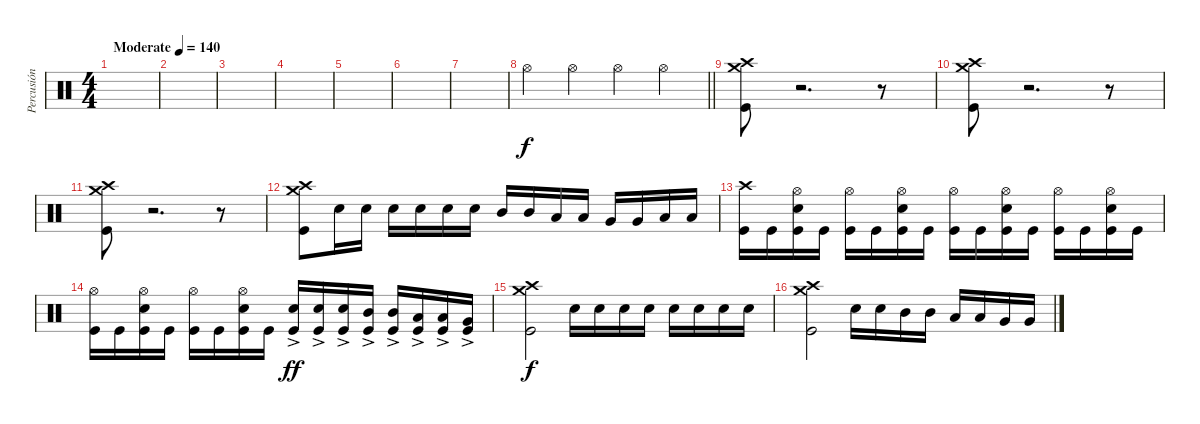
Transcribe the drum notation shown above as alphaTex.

\track ("Percusión" "Percusión") {instrument percussion}
\staff {score}
\articulation defaults
\ts (4 4)
\tempo (140 "Moderate")
\clef neutral
\ks c
|
|
|
|
|
|
|
\barLineRight lightlight "Hi-Hat (open)".4 "Hi-Hat (open)".4 "Hi-Hat (open)".4 "Hi-Hat (open)".4
|
("Kick (hit)" "Crash high (hit)" "Crash medium (hit)").8 r.2{d} r.8 |
("Kick (hit)" "Crash high (hit)" "Crash medium (hit)").8 r.2{d} r.8 |
("Kick (hit)" "Crash high (hit)" "Crash medium (hit)").8 r.2{d} r.8 |
("Kick (hit)" "Crash high (hit)" "Crash medium (hit)").8 "Snare (hit) 2".16 "Snare (hit) 2".16 "Snare (hit) 2".16 "Snare (hit) 2".16 "Snare (hit) 2".16 "Snare (hit) 2".16 "Mid Tom (hit)".16 "Mid Tom (hit)".16 "Low Tom (hit)".16 "Low Tom (hit)".16 "Very Low Tom (hit)".16 "Very Low Tom (hit)".16 "Low Floor Tom (hit)".16 "Low Floor Tom (hit)".16 |
("Kick (hit)" "Crash high (hit)").16 "Kick (hit)".16 ("Snare (hit) 2" "Kick (hit)" "Hi-Hat (open)").16 "Kick (hit)".16 ("Kick (hit)" "Hi-Hat (open)").16 "Kick (hit)".16 ("Kick (hit)" "Snare (hit) 2" "Hi-Hat (open)").16 "Kick (hit)".16 ("Kick (hit)" "Hi-Hat (open)").16 "Kick (hit)".16 ("Kick (hit)" "Snare (hit) 2" "Hi-Hat (open)").16 "Kick (hit)".16 ("Kick (hit)" "Hi-Hat (open)").16 "Kick (hit)".16 ("Kick (hit)" "Snare (hit) 2" "Hi-Hat (open)").16 "Kick (hit)".16 |
("Kick (hit)" "Hi-Hat (open)").16 "Kick (hit)".16 ("Snare (hit) 2" "Kick (hit)" "Hi-Hat (open)").16 "Kick (hit)".16 ("Kick (hit)" "Hi-Hat (open)").16 "Kick (hit)".16 ("Kick (hit)" "Snare (hit) 2" "Hi-Hat (open)").16 "Kick (hit)".16 ("Kick (hit)"{ac} "Snare (hit) 2").16{dy ff} ("Kick (hit)"{ac} "Snare (hit) 2").16 ("Kick (hit)"{ac} "Snare (hit) 2").16 ("Kick (hit)"{ac} "Mid Tom (hit)").16 ("Kick (hit)"{ac} "Mid Tom (hit)").16 ("Low Tom (hit)" "Kick (hit)"{ac}).16 ("Kick (hit)"{ac} "Low Tom (hit)").16 ("Kick (hit)"{ac} "Very Low Tom (hit)").16 |
("Kick (hit)" "Crash high (hit)" "Crash medium (hit)").2{dy f} "Snare (hit) 2".16 "Snare (hit) 2".16 "Snare (hit) 2".16 "Snare (hit) 2".16 "Snare (hit) 2".16 "Snare (hit) 2".16 "Snare (hit) 2".16 "Snare (hit) 2".16 |
("Kick (hit)" "Crash high (hit)" "Crash medium (hit)").2 "Snare (hit) 2".16 "Snare (hit) 2".16 "Mid Tom (hit)".16 "Mid Tom (hit)".16 "Low Tom (hit)".16 "Low Tom (hit)".16 "Very Low Tom (hit)".16 "Very Low Tom (hit)".16
